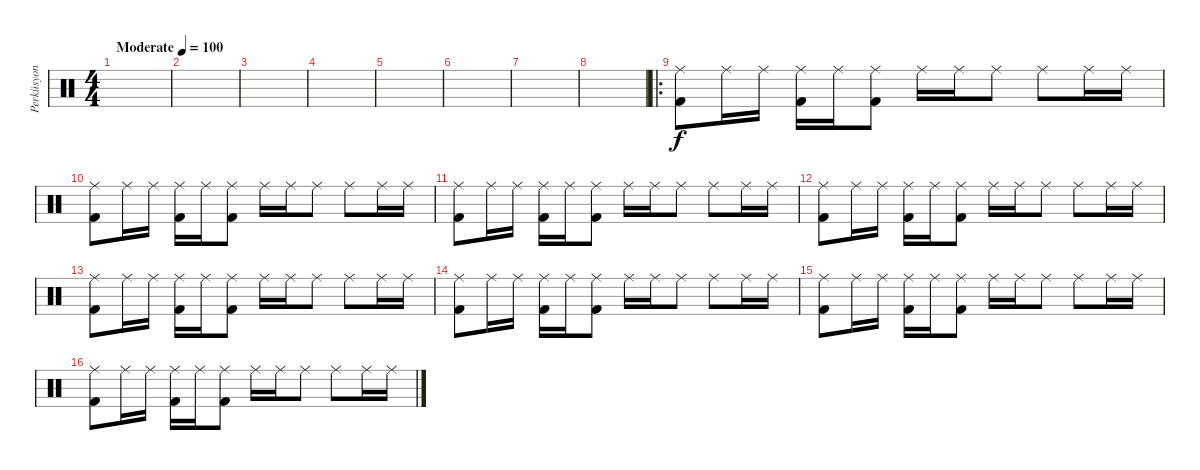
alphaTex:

\track ("Perküsyon" "Perküsyon") {instrument percussion}
\staff {score}
\articulation defaults
\ts (4 4)
\tempo (100 "Moderate")
\clef neutral
\ks c
|
|
|
|
|
|
|
|
\ro
("Ride (middle)" "Kick (hit) 2").8 "Ride (middle)".16 "Ride (middle)".16 ("Ride (middle)" "Kick (hit) 2").16 "Ride (middle)".16 ("Kick (hit) 2" "Ride (middle)").8 "Ride (middle)".16 "Ride (middle)".16 "Ride (middle)".8 "Ride (middle)".8 "Ride (middle)".16 "Ride (middle)".16 |
("Ride (middle)" "Kick (hit) 2").8 "Ride (middle)".16 "Ride (middle)".16 ("Ride (middle)" "Kick (hit) 2").16 "Ride (middle)".16 ("Kick (hit) 2" "Ride (middle)").8 "Ride (middle)".16 "Ride (middle)".16 "Ride (middle)".8 "Ride (middle)".8 "Ride (middle)".16 "Ride (middle)".16 |
("Ride (middle)" "Kick (hit) 2").8 "Ride (middle)".16 "Ride (middle)".16 ("Ride (middle)" "Kick (hit) 2").16 "Ride (middle)".16 ("Kick (hit) 2" "Ride (middle)").8 "Ride (middle)".16 "Ride (middle)".16 "Ride (middle)".8 "Ride (middle)".8 "Ride (middle)".16 "Ride (middle)".16 |
("Ride (middle)" "Kick (hit) 2").8 "Ride (middle)".16 "Ride (middle)".16 ("Ride (middle)" "Kick (hit) 2").16 "Ride (middle)".16 ("Kick (hit) 2" "Ride (middle)").8 "Ride (middle)".16 "Ride (middle)".16 "Ride (middle)".8 "Ride (middle)".8 "Ride (middle)".16 "Ride (middle)".16 |
("Ride (middle)" "Kick (hit) 2").8 "Ride (middle)".16 "Ride (middle)".16 ("Ride (middle)" "Kick (hit) 2").16 "Ride (middle)".16 ("Kick (hit) 2" "Ride (middle)").8 "Ride (middle)".16 "Ride (middle)".16 "Ride (middle)".8 "Ride (middle)".8 "Ride (middle)".16 "Ride (middle)".16 |
("Ride (middle)" "Kick (hit) 2").8 "Ride (middle)".16 "Ride (middle)".16 ("Ride (middle)" "Kick (hit) 2").16 "Ride (middle)".16 ("Kick (hit) 2" "Ride (middle)").8 "Ride (middle)".16 "Ride (middle)".16 "Ride (middle)".8 "Ride (middle)".8 "Ride (middle)".16 "Ride (middle)".16 |
("Ride (middle)" "Kick (hit) 2").8 "Ride (middle)".16 "Ride (middle)".16 ("Ride (middle)" "Kick (hit) 2").16 "Ride (middle)".16 ("Kick (hit) 2" "Ride (middle)").8 "Ride (middle)".16 "Ride (middle)".16 "Ride (middle)".8 "Ride (middle)".8 "Ride (middle)".16 "Ride (middle)".16 |
("Ride (middle)" "Kick (hit) 2").8 "Ride (middle)".16 "Ride (middle)".16 ("Ride (middle)" "Kick (hit) 2").16 "Ride (middle)".16 ("Kick (hit) 2" "Ride (middle)").8 "Ride (middle)".16 "Ride (middle)".16 "Ride (middle)".8 "Ride (middle)".8 "Ride (middle)".16 "Ride (middle)".16
